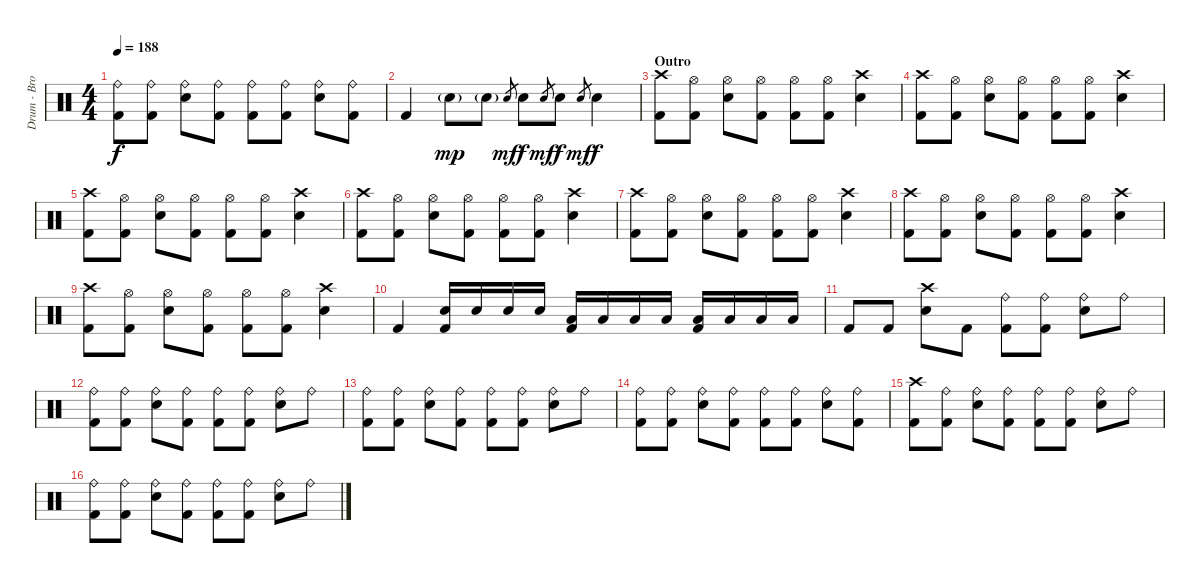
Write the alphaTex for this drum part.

\track ("Drum - Brooks Wackerman" "Drum - Bro") {instrument percussion}
\staff {score}
\articulation defaults
\ts (4 4)
\tempo 188
\clef neutral
\ks c
("Ride (bell)" "Kick (hit) 2").8{dy f} ("Ride (bell)" "Kick (hit) 2").8 ("Ride (bell)" "Electric Snare (hit)").8 ("Ride (bell)" "Kick (hit) 2").8 ("Ride (bell)" "Kick (hit) 2").8 ("Ride (bell)" "Kick (hit) 2").8 ("Ride (bell)" "Electric Snare (hit)").8 ("Ride (bell)" "Kick (hit) 2").8 |
"Kick (hit) 2".4 "Electric Snare (hit)"{g}.8{dy mp} "Electric Snare (hit)"{g}.8 "Electric Snare (hit)".8{gr dy mf} "Electric Snare (hit)".8{dy f} "Electric Snare (hit)".8{gr dy mf} "Electric Snare (hit)".8{dy f} "Electric Snare (hit)".8{gr dy mf} "Electric Snare (hit)".4{dy f} |
\section ("" "Outro")
("Crash high (hit)" "Kick (hit) 2").8{volume 14} ("Hi-Hat (open)" "Kick (hit) 2").8 ("Hi-Hat (open)" "Electric Snare (hit)").8 ("Hi-Hat (open)" "Kick (hit) 2").8 ("Hi-Hat (open)" "Kick (hit) 2").8 ("Hi-Hat (open)" "Kick (hit) 2").8 ("Crash high (hit)" "Electric Snare (hit)").4 |
("Crash high (hit)" "Kick (hit) 2").8 ("Hi-Hat (open)" "Kick (hit) 2").8 ("Hi-Hat (open)" "Electric Snare (hit)").8 ("Hi-Hat (open)" "Kick (hit) 2").8 ("Hi-Hat (open)" "Kick (hit) 2").8 ("Hi-Hat (open)" "Kick (hit) 2").8 ("Crash high (hit)" "Electric Snare (hit)").4 |
("Crash high (hit)" "Kick (hit) 2").8 ("Hi-Hat (open)" "Kick (hit) 2").8 ("Hi-Hat (open)" "Electric Snare (hit)").8 ("Hi-Hat (open)" "Kick (hit) 2").8 ("Hi-Hat (open)" "Kick (hit) 2").8 ("Hi-Hat (open)" "Kick (hit) 2").8 ("Crash high (hit)" "Electric Snare (hit)").4 |
("Crash high (hit)" "Kick (hit) 2").8 ("Hi-Hat (open)" "Kick (hit) 2").8 ("Hi-Hat (open)" "Electric Snare (hit)").8 ("Hi-Hat (open)" "Kick (hit) 2").8 ("Hi-Hat (open)" "Kick (hit) 2").8 ("Hi-Hat (open)" "Kick (hit) 2").8 ("Crash high (hit)" "Electric Snare (hit)").4 |
("Crash high (hit)" "Kick (hit) 2").8 ("Hi-Hat (open)" "Kick (hit) 2").8 ("Hi-Hat (open)" "Electric Snare (hit)").8 ("Hi-Hat (open)" "Kick (hit) 2").8 ("Hi-Hat (open)" "Kick (hit) 2").8 ("Hi-Hat (open)" "Kick (hit) 2").8 ("Crash high (hit)" "Electric Snare (hit)").4 |
("Crash high (hit)" "Kick (hit) 2").8 ("Hi-Hat (open)" "Kick (hit) 2").8 ("Hi-Hat (open)" "Electric Snare (hit)").8 ("Hi-Hat (open)" "Kick (hit) 2").8 ("Hi-Hat (open)" "Kick (hit) 2").8 ("Hi-Hat (open)" "Kick (hit) 2").8 ("Crash high (hit)" "Electric Snare (hit)").4 |
("Crash high (hit)" "Kick (hit) 2").8 ("Hi-Hat (open)" "Kick (hit) 2").8 ("Hi-Hat (open)" "Electric Snare (hit)").8 ("Hi-Hat (open)" "Kick (hit) 2").8 ("Hi-Hat (open)" "Kick (hit) 2").8 ("Hi-Hat (open)" "Kick (hit) 2").8 ("Crash high (hit)" "Electric Snare (hit)").4 |
"Kick (hit) 2".4 ("Electric Snare (hit)" "Kick (hit) 2").16 "Electric Snare (hit)".16 "Electric Snare (hit)".16 "Electric Snare (hit)".16 ("Low Tom (hit)" "Kick (hit) 2").16 "Low Tom (hit)".16 "Low Tom (hit)".16 "Low Tom (hit)".16 ("Low Floor Tom (hit)" "Kick (hit) 2").16 "Low Floor Tom (hit)".16 "Low Floor Tom (hit)".16 "Low Floor Tom (hit)".16 |
"Kick (hit) 2".8 "Kick (hit) 2".8 ("Crash high (hit)" "Electric Snare (hit)").8 "Kick (hit) 2".8 ("Ride (bell)" "Kick (hit) 2").8 ("Ride (bell)" "Kick (hit) 2").8 ("Ride (bell)" "Electric Snare (hit)").8 "Ride (bell)".8 |
("Ride (bell)" "Kick (hit) 2").8 ("Ride (bell)" "Kick (hit) 2").8 ("Ride (bell)" "Electric Snare (hit)").8 ("Ride (bell)" "Kick (hit) 2").8 ("Ride (bell)" "Kick (hit) 2").8 ("Ride (bell)" "Kick (hit) 2").8 ("Ride (bell)" "Electric Snare (hit)").8 "Ride (bell)".8 |
("Ride (bell)" "Kick (hit) 2").8 ("Ride (bell)" "Kick (hit) 2").8 ("Ride (bell)" "Electric Snare (hit)").8 ("Ride (bell)" "Kick (hit) 2").8 ("Ride (bell)" "Kick (hit) 2").8 ("Ride (bell)" "Kick (hit) 2").8 ("Ride (bell)" "Electric Snare (hit)").8 "Ride (bell)".8 |
("Ride (bell)" "Kick (hit) 2").8 ("Ride (bell)" "Kick (hit) 2").8 ("Ride (bell)" "Electric Snare (hit)").8 ("Ride (bell)" "Kick (hit) 2").8 ("Ride (bell)" "Kick (hit) 2").8 ("Ride (bell)" "Kick (hit) 2").8 ("Ride (bell)" "Electric Snare (hit)").8 ("Ride (bell)" "Kick (hit) 2").8 |
("Crash high (hit)" "Kick (hit) 2").8 ("Ride (bell)" "Kick (hit) 2").8 ("Ride (bell)" "Electric Snare (hit)").8 ("Ride (bell)" "Kick (hit) 2").8 ("Ride (bell)" "Kick (hit) 2").8 ("Ride (bell)" "Kick (hit) 2").8 ("Ride (bell)" "Electric Snare (hit)").8 "Ride (bell)".8 |
("Ride (bell)" "Kick (hit) 2").8 ("Ride (bell)" "Kick (hit) 2").8 ("Ride (bell)" "Electric Snare (hit)").8 ("Ride (bell)" "Kick (hit) 2").8 ("Ride (bell)" "Kick (hit) 2").8 ("Ride (bell)" "Kick (hit) 2").8 ("Ride (bell)" "Electric Snare (hit)").8 "Ride (bell)".8
